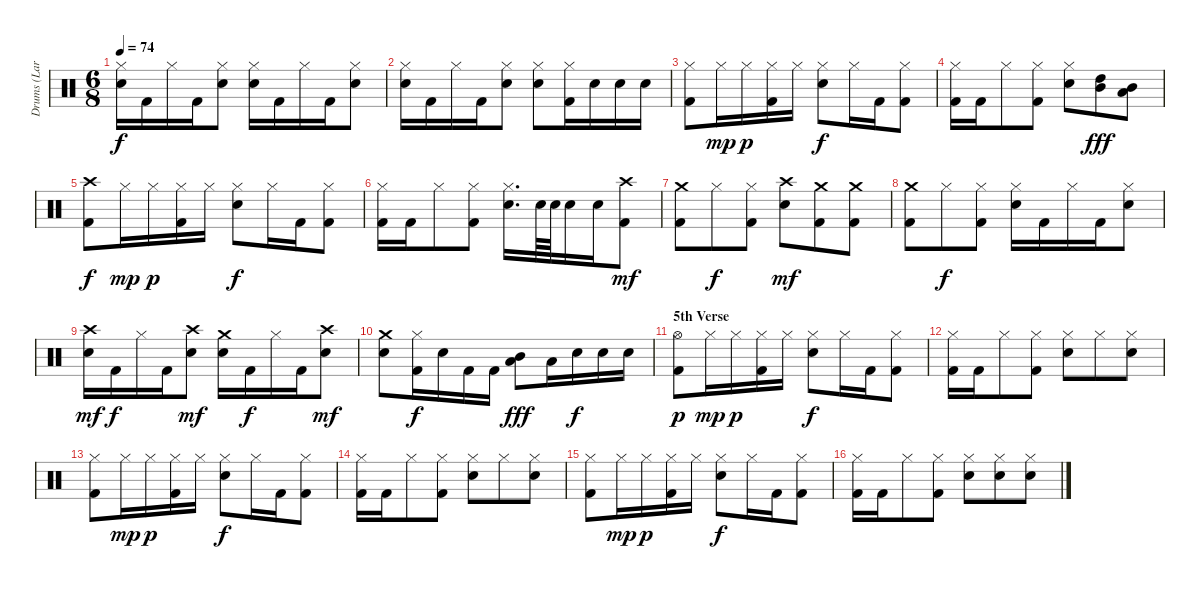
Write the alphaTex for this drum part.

\track ("Drums (Lars Ulrich)" "Drums (Lar") {instrument percussion}
\staff {score}
\articulation defaults
\ts (6 8)
\tempo 74
\clef neutral
\ks c
("Hi-Hat (closed)" "Snare (hit) 2").16{dy f} "Kick (hit) 2".16 "Hi-Hat (closed)".16 "Kick (hit) 2".16 ("Hi-Hat (closed)" "Snare (hit) 2").8 ("Hi-Hat (closed)" "Snare (hit) 2").16 "Kick (hit) 2".16 "Hi-Hat (closed)".16 "Kick (hit) 2".16 ("Hi-Hat (closed)" "Snare (hit) 2").8 |
("Hi-Hat (closed)" "Snare (hit) 2").16 "Kick (hit) 2".16 "Hi-Hat (closed)".16 "Kick (hit) 2".16 ("Hi-Hat (closed)" "Snare (hit) 2").8 ("Hi-Hat (closed)" "Snare (hit) 2").8 ("Hi-Hat (closed)" "Kick (hit) 2").16 "Snare (hit) 2".16 "Snare (hit) 2".16 "Snare (hit) 2".16 |
("Hi-Hat (closed)" "Kick (hit) 2").8 "Hi-Hat (closed)".16{dy mp} "Hi-Hat (closed)".16{dy p} ("Hi-Hat (closed)" "Kick (hit) 2").16 "Hi-Hat (closed)".16 ("Hi-Hat (closed)" "Snare (hit) 2").8{dy f} "Hi-Hat (closed)".16 "Kick (hit) 2".16 ("Hi-Hat (closed)" "Kick (hit) 2").8 |
("Hi-Hat (closed)" "Kick (hit) 2").16 "Kick (hit) 2".16 "Hi-Hat (closed)".8 ("Hi-Hat (closed)" "Kick (hit) 2").8 ("Hi-Hat (closed)" "Snare (hit) 2").8 ("High Tom (hit)" "Mid Tom (hit)").8{dy fff} ("Mid Tom (hit)" "Low Tom (hit)").8 |
("Crash high (hit)" "Kick (hit) 2").8{dy f} "Hi-Hat (closed)".16{dy mp} "Hi-Hat (closed)".16{dy p} ("Hi-Hat (closed)" "Kick (hit) 2").16 "Hi-Hat (closed)".16 ("Hi-Hat (closed)" "Snare (hit) 2").8{dy f} "Hi-Hat (closed)".16 "Kick (hit) 2".16 ("Hi-Hat (closed)" "Kick (hit) 2").8 |
("Hi-Hat (closed)" "Kick (hit) 2").16 "Kick (hit) 2".16 "Hi-Hat (closed)".8 ("Hi-Hat (closed)" "Kick (hit) 2").8 ("Hi-Hat (closed)" "Snare (hit) 2").16{d} "Snare (hit) 2".64 "Snare (hit) 2".64 "Snare (hit) 2".16 "Snare (hit) 2".16 ("Crash high (hit)" "Kick (hit) 2").8{dy mf} |
("Crash medium (hit)" "Kick (hit) 2").8 "Hi-Hat (closed)".8{dy f} ("Hi-Hat (closed)" "Kick (hit) 2").8 ("Crash high (hit)" "Snare (hit) 2").8{dy mf} ("Crash medium (hit)" "Kick (hit) 2").8 ("Crash medium (hit)" "Kick (hit) 2").8 |
("Crash medium (hit)" "Kick (hit) 2").8 "Hi-Hat (closed)".8{dy f} ("Hi-Hat (closed)" "Kick (hit) 2").8 ("Hi-Hat (closed)" "Snare (hit) 2").16 "Kick (hit) 2".16 "Hi-Hat (closed)".16 "Kick (hit) 2".16 ("Hi-Hat (closed)" "Snare (hit) 2").8 |
("Crash high (hit)" "Snare (hit) 2").16{dy mf} "Kick (hit) 2".16{dy f} "Hi-Hat (closed)".16 "Kick (hit) 2".16 ("Crash high (hit)" "Snare (hit) 2").8{dy mf} ("Crash medium (hit)" "Snare (hit) 2").16 "Kick (hit) 2".16{dy f} "Hi-Hat (closed)".16 "Kick (hit) 2".16 ("Crash high (hit)" "Snare (hit) 2").8{dy mf} |
("Crash medium (hit)" "Snare (hit) 2").8 ("Hi-Hat (closed)" "Kick (hit) 2").16{dy f} "Snare (hit) 2".16 "Kick (hit) 2".16 "Kick (hit) 2".16 ("Mid Tom (hit)" "Low Tom (hit)").8{dy fff} "Low Tom (hit)".16 "Snare (hit) 2".16{dy f} "Snare (hit) 2".16 "Snare (hit) 2".16 |
\section ("" "5th Verse")
("Hi-Hat (open)" "Kick (hit) 2").8{dy p} "Hi-Hat (closed)".16{dy mp} "Hi-Hat (closed)".16{dy p} ("Hi-Hat (closed)" "Kick (hit) 2").16 "Hi-Hat (closed)".16 ("Hi-Hat (closed)" "Snare (hit) 2").8{dy f} "Hi-Hat (closed)".16 "Kick (hit) 2".16 ("Hi-Hat (closed)" "Kick (hit) 2").8 |
("Hi-Hat (closed)" "Kick (hit) 2").16 "Kick (hit) 2".16 "Hi-Hat (closed)".8 ("Hi-Hat (closed)" "Kick (hit) 2").8 ("Hi-Hat (closed)" "Snare (hit) 2").8 "Hi-Hat (closed)".8 ("Hi-Hat (closed)" "Snare (hit) 2").8 |
("Hi-Hat (closed)" "Kick (hit) 2").8 "Hi-Hat (closed)".16{dy mp} "Hi-Hat (closed)".16{dy p} ("Hi-Hat (closed)" "Kick (hit) 2").16 "Hi-Hat (closed)".16 ("Hi-Hat (closed)" "Snare (hit) 2").8{dy f} "Hi-Hat (closed)".16 "Kick (hit) 2".16 ("Hi-Hat (closed)" "Kick (hit) 2").8 |
("Hi-Hat (closed)" "Kick (hit) 2").16 "Kick (hit) 2".16 "Hi-Hat (closed)".8 ("Hi-Hat (closed)" "Kick (hit) 2").8 ("Hi-Hat (closed)" "Snare (hit) 2").8 "Hi-Hat (closed)".8 ("Hi-Hat (closed)" "Snare (hit) 2").8 |
("Hi-Hat (closed)" "Kick (hit) 2").8 "Hi-Hat (closed)".16{dy mp} "Hi-Hat (closed)".16{dy p} ("Hi-Hat (closed)" "Kick (hit) 2").16 "Hi-Hat (closed)".16 ("Hi-Hat (closed)" "Snare (hit) 2").8{dy f} "Hi-Hat (closed)".16 "Kick (hit) 2".16 ("Hi-Hat (closed)" "Kick (hit) 2").8 |
("Hi-Hat (closed)" "Kick (hit) 2").16 "Kick (hit) 2".16 "Hi-Hat (closed)".8 ("Hi-Hat (closed)" "Kick (hit) 2").8 ("Hi-Hat (closed)" "Snare (hit) 2").8 ("Hi-Hat (closed)" "Snare (hit) 2").8 ("Hi-Hat (closed)" "Snare (hit) 2").8
